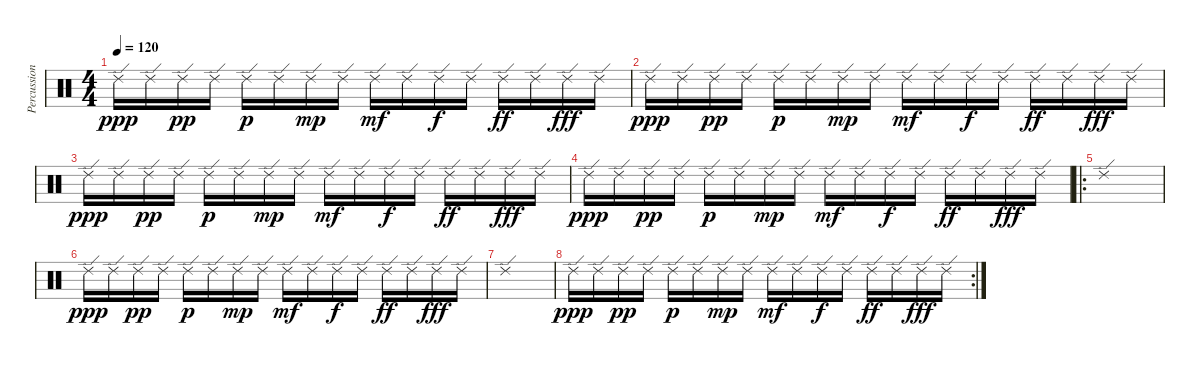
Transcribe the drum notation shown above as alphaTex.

\track ("Percussion" "Percussion") {instrument percussion}
\staff {score}
\articulation defaults
\ts (4 4)
\tempo 120
\clef neutral
\ks c "Ride (edge) 2".16{dy ppp} "Ride (edge) 2".16 "Ride (edge) 2".16{dy pp} "Ride (edge) 2".16 "Ride (edge) 2".16{dy p} "Ride (edge) 2".16 "Ride (edge) 2".16{dy mp} "Ride (edge) 2".16 "Ride (edge) 2".16{dy mf} "Ride (edge) 2".16 "Ride (edge) 2".16{dy f} "Ride (edge) 2".16 "Ride (edge) 2".16{dy ff} "Ride (edge) 2".16 "Ride (edge) 2".16{dy fff} "Ride (edge) 2".16
|
"Ride (edge) 2".16{dy ppp} "Ride (edge) 2".16 "Ride (edge) 2".16{dy pp} "Ride (edge) 2".16 "Ride (edge) 2".16{dy p} "Ride (edge) 2".16 "Ride (edge) 2".16{dy mp} "Ride (edge) 2".16 "Ride (edge) 2".16{dy mf} "Ride (edge) 2".16 "Ride (edge) 2".16{dy f} "Ride (edge) 2".16 "Ride (edge) 2".16{dy ff} "Ride (edge) 2".16 "Ride (edge) 2".16{dy fff} "Ride (edge) 2".16 |
"Ride (edge) 2".16{dy ppp} "Ride (edge) 2".16 "Ride (edge) 2".16{dy pp} "Ride (edge) 2".16 "Ride (edge) 2".16{dy p} "Ride (edge) 2".16 "Ride (edge) 2".16{dy mp} "Ride (edge) 2".16 "Ride (edge) 2".16{dy mf} "Ride (edge) 2".16 "Ride (edge) 2".16{dy f} "Ride (edge) 2".16 "Ride (edge) 2".16{dy ff} "Ride (edge) 2".16 "Ride (edge) 2".16{dy fff} "Ride (edge) 2".16 |
"Ride (edge) 2".16{dy ppp} "Ride (edge) 2".16 "Ride (edge) 2".16{dy pp} "Ride (edge) 2".16 "Ride (edge) 2".16{dy p} "Ride (edge) 2".16 "Ride (edge) 2".16{dy mp} "Ride (edge) 2".16 "Ride (edge) 2".16{dy mf} "Ride (edge) 2".16 "Ride (edge) 2".16{dy f} "Ride (edge) 2".16 "Ride (edge) 2".16{dy ff} "Ride (edge) 2".16 "Ride (edge) 2".16{dy fff} "Ride (edge) 2".16 |
\ro "Ride (edge) 2".1
|
"Ride (edge) 2".16{dy ppp} "Ride (edge) 2".16 "Ride (edge) 2".16{dy pp} "Ride (edge) 2".16 "Ride (edge) 2".16{dy p} "Ride (edge) 2".16 "Ride (edge) 2".16{dy mp} "Ride (edge) 2".16 "Ride (edge) 2".16{dy mf} "Ride (edge) 2".16 "Ride (edge) 2".16{dy f} "Ride (edge) 2".16 "Ride (edge) 2".16{dy ff} "Ride (edge) 2".16 "Ride (edge) 2".16{dy fff} "Ride (edge) 2".16 |
"Ride (edge) 2".1 |
\rc 2 "Ride (edge) 2".16{dy ppp} "Ride (edge) 2".16 "Ride (edge) 2".16{dy pp} "Ride (edge) 2".16 "Ride (edge) 2".16{dy p} "Ride (edge) 2".16 "Ride (edge) 2".16{dy mp} "Ride (edge) 2".16 "Ride (edge) 2".16{dy mf} "Ride (edge) 2".16 "Ride (edge) 2".16{dy f} "Ride (edge) 2".16 "Ride (edge) 2".16{dy ff} "Ride (edge) 2".16 "Ride (edge) 2".16{dy fff} "Ride (edge) 2".16
